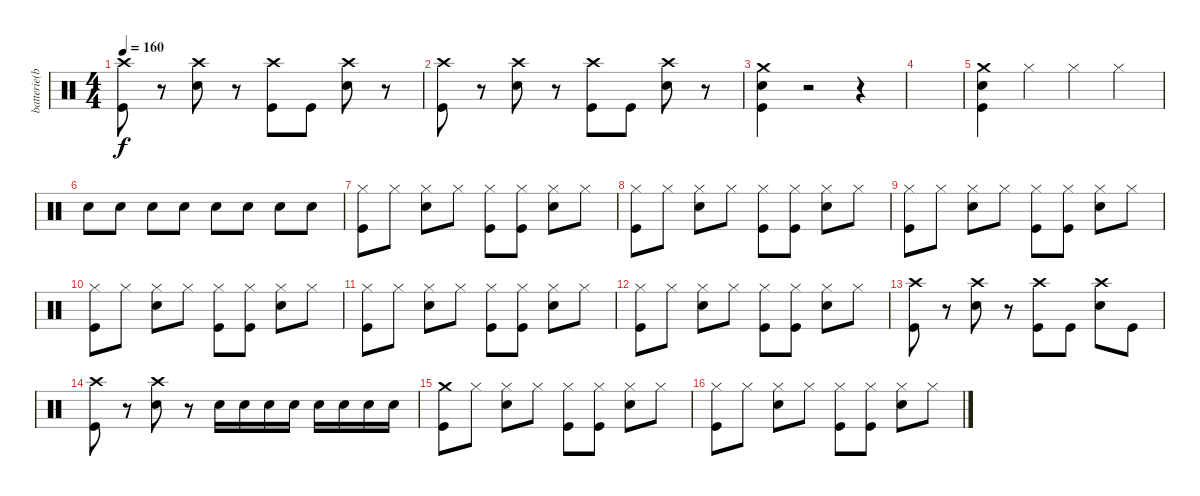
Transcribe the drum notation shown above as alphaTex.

\track ("batterie(brett)" "batterie(b") {instrument percussion}
\staff {score}
\articulation defaults
\ts (4 4)
\tempo 160
\clef neutral
\ks c
("Crash high (hit)" "Kick (hit)").8{dy f} r.8 ("Crash high (hit)" "Snare (hit) 2").8 r.8 ("Crash high (hit)" "Kick (hit)").8 "Kick (hit)".8 ("Crash high (hit)" "Snare (hit) 2").8 r.8 |
("Crash high (hit)" "Kick (hit)").8 r.8 ("Crash high (hit)" "Snare (hit) 2").8 r.8 ("Crash high (hit)" "Kick (hit)").8 "Kick (hit)".8 ("Crash high (hit)" "Snare (hit) 2").8 r.8 |
("Crash medium (hit)" "Snare (hit) 2" "Kick (hit)").4 r.2 r.4 |
|
("Crash medium (hit)" "Snare (hit) 2" "Kick (hit)").4 "Hi-Hat (closed)".4 "Hi-Hat (closed)".4 "Hi-Hat (closed)".4 |
"Snare (hit) 2".8 "Snare (hit) 2".8 "Snare (hit) 2".8 "Snare (hit) 2".8 "Snare (hit) 2".8 "Snare (hit) 2".8 "Snare (hit) 2".8 "Snare (hit) 2".8 |
("Hi-Hat (closed)" "Kick (hit)").8 "Hi-Hat (closed)".8 ("Hi-Hat (closed)" "Snare (hit) 2").8 "Hi-Hat (closed)".8 ("Hi-Hat (closed)" "Kick (hit)").8 ("Hi-Hat (closed)" "Kick (hit)").8 ("Hi-Hat (closed)" "Snare (hit) 2").8 "Hi-Hat (closed)".8 |
("Hi-Hat (closed)" "Kick (hit)").8 "Hi-Hat (closed)".8 ("Hi-Hat (closed)" "Snare (hit) 2").8 "Hi-Hat (closed)".8 ("Hi-Hat (closed)" "Kick (hit)").8 ("Hi-Hat (closed)" "Kick (hit)").8 ("Hi-Hat (closed)" "Snare (hit) 2").8 "Hi-Hat (closed)".8 |
("Hi-Hat (closed)" "Kick (hit)").8 "Hi-Hat (closed)".8 ("Hi-Hat (closed)" "Snare (hit) 2").8 "Hi-Hat (closed)".8 ("Hi-Hat (closed)" "Kick (hit)").8 ("Hi-Hat (closed)" "Kick (hit)").8 ("Hi-Hat (closed)" "Snare (hit) 2").8 "Hi-Hat (closed)".8 |
("Hi-Hat (closed)" "Kick (hit)").8 "Hi-Hat (closed)".8 ("Hi-Hat (closed)" "Snare (hit) 2").8 "Hi-Hat (closed)".8 ("Hi-Hat (closed)" "Kick (hit)").8 ("Hi-Hat (closed)" "Kick (hit)").8 ("Hi-Hat (closed)" "Snare (hit) 2").8 "Hi-Hat (closed)".8 |
("Hi-Hat (closed)" "Kick (hit)").8 "Hi-Hat (closed)".8 ("Hi-Hat (closed)" "Snare (hit) 2").8 "Hi-Hat (closed)".8 ("Hi-Hat (closed)" "Kick (hit)").8 ("Hi-Hat (closed)" "Kick (hit)").8 ("Hi-Hat (closed)" "Snare (hit) 2").8 "Hi-Hat (closed)".8 |
("Hi-Hat (closed)" "Kick (hit)").8 "Hi-Hat (closed)".8 ("Hi-Hat (closed)" "Snare (hit) 2").8 "Hi-Hat (closed)".8 ("Hi-Hat (closed)" "Kick (hit)").8 ("Hi-Hat (closed)" "Kick (hit)").8 ("Hi-Hat (closed)" "Snare (hit) 2").8 "Hi-Hat (closed)".8 |
("Crash high (hit)" "Kick (hit)").8 r.8 ("Crash high (hit)" "Snare (hit) 2").8 r.8 ("Crash high (hit)" "Kick (hit)").8 "Kick (hit)".8 ("Crash high (hit)" "Snare (hit) 2").8 "Kick (hit)".8 |
("Crash high (hit)" "Kick (hit)").8 r.8 ("Crash high (hit)" "Snare (hit) 2").8 r.8 "Snare (hit) 2".16 "Snare (hit) 2".16 "Snare (hit) 2".16 "Snare (hit) 2".16 "Snare (hit) 2".16 "Snare (hit) 2".16 "Snare (hit) 2".16 "Snare (hit) 2".16 |
("Crash medium (hit)" "Kick (hit)").8 "Hi-Hat (closed)".8 ("Hi-Hat (closed)" "Snare (hit) 2").8 "Hi-Hat (closed)".8 ("Hi-Hat (closed)" "Kick (hit)").8 ("Hi-Hat (closed)" "Kick (hit)").8 ("Hi-Hat (closed)" "Snare (hit) 2").8 "Hi-Hat (closed)".8 |
("Hi-Hat (closed)" "Kick (hit)").8 "Hi-Hat (closed)".8 ("Hi-Hat (closed)" "Snare (hit) 2").8 "Hi-Hat (closed)".8 ("Hi-Hat (closed)" "Kick (hit)").8 ("Hi-Hat (closed)" "Kick (hit)").8 ("Hi-Hat (closed)" "Snare (hit) 2").8 "Hi-Hat (closed)".8
